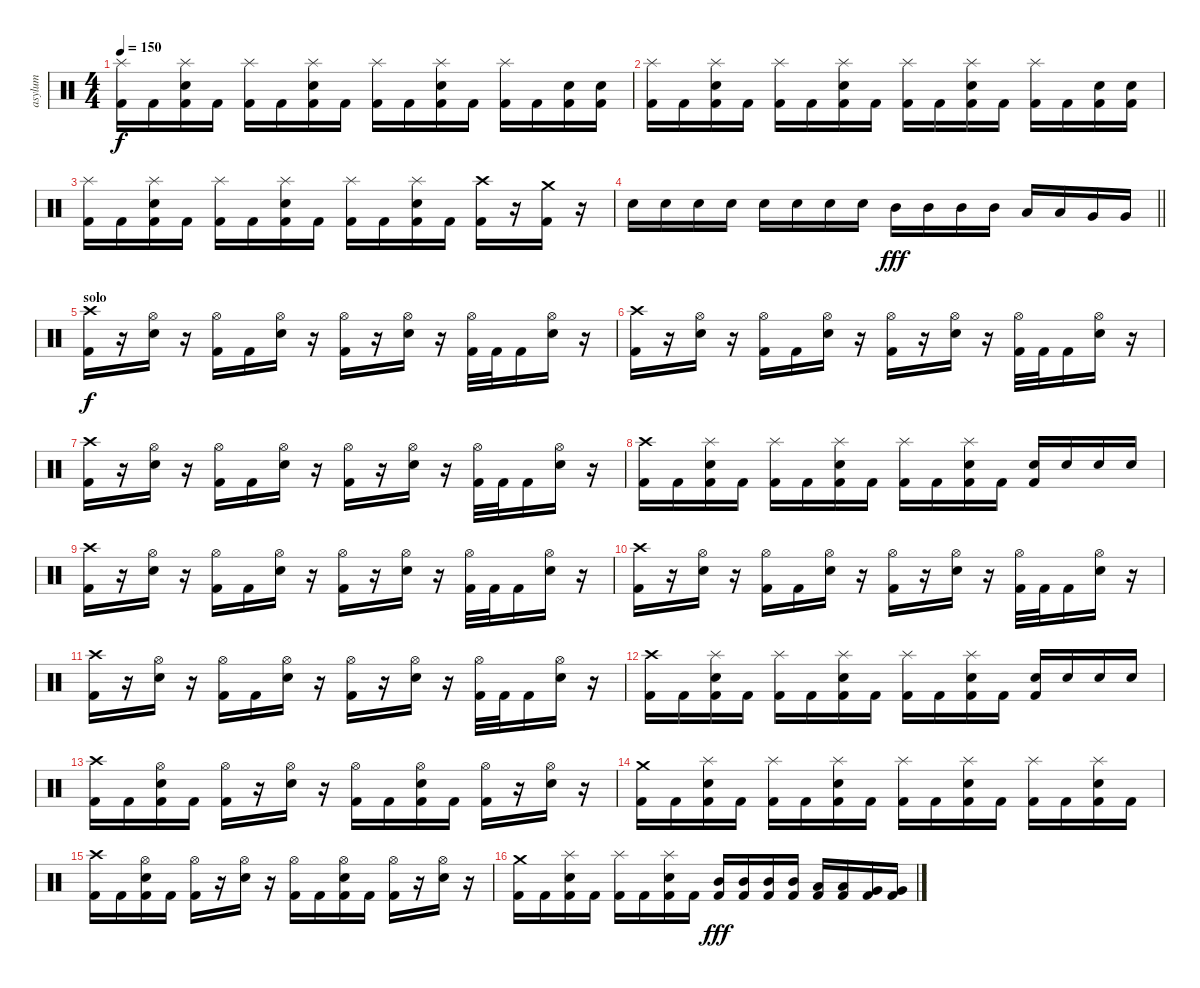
\track ("asylum" "asylum") {instrument percussion}
\staff {score}
\articulation defaults
\ts (4 4)
\tempo 150
\clef neutral
\ks c
("Splash (hit)" "Kick (hit) 2").16{dy f} "Kick (hit) 2".16 ("Splash (hit)" "Electric Snare (hit)" "Kick (hit) 2").16 "Kick (hit) 2".16 ("Splash (hit)" "Kick (hit) 2").16 "Kick (hit) 2".16 ("Splash (hit)" "Electric Snare (hit)" "Kick (hit) 2").16 "Kick (hit) 2".16 ("Splash (hit)" "Kick (hit) 2").16 "Kick (hit) 2".16 ("Splash (hit)" "Electric Snare (hit)" "Kick (hit) 2").16 "Kick (hit) 2".16 ("Splash (hit)" "Kick (hit) 2").16 "Kick (hit) 2".16 ("Electric Snare (hit)" "Kick (hit) 2").16 ("Electric Snare (hit)" "Kick (hit) 2").16 |
("Splash (hit)" "Kick (hit) 2").16 "Kick (hit) 2".16 ("Splash (hit)" "Electric Snare (hit)" "Kick (hit) 2").16 "Kick (hit) 2".16 ("Splash (hit)" "Kick (hit) 2").16 "Kick (hit) 2".16 ("Splash (hit)" "Electric Snare (hit)" "Kick (hit) 2").16 "Kick (hit) 2".16 ("Splash (hit)" "Kick (hit) 2").16 "Kick (hit) 2".16 ("Splash (hit)" "Electric Snare (hit)" "Kick (hit) 2").16 "Kick (hit) 2".16 ("Splash (hit)" "Kick (hit) 2").16 "Kick (hit) 2".16 ("Electric Snare (hit)" "Kick (hit) 2").16 ("Electric Snare (hit)" "Kick (hit) 2").16 |
("Splash (hit)" "Kick (hit) 2").16 "Kick (hit) 2".16 ("Splash (hit)" "Electric Snare (hit)" "Kick (hit) 2").16 "Kick (hit) 2".16 ("Splash (hit)" "Kick (hit) 2").16 "Kick (hit) 2".16 ("Splash (hit)" "Electric Snare (hit)" "Kick (hit) 2").16 "Kick (hit) 2".16 ("Splash (hit)" "Kick (hit) 2").16 "Kick (hit) 2".16 ("Splash (hit)" "Electric Snare (hit)" "Kick (hit) 2").16 "Kick (hit) 2".16 ("Crash high (hit)" "Kick (hit) 2").16 r.16 ("Crash medium (hit)" "Kick (hit) 2").16 r.16 |
\barLineRight lightlight "Electric Snare (hit)".16 "Electric Snare (hit)".16 "Electric Snare (hit)".16 "Electric Snare (hit)".16 "Electric Snare (hit)".16 "Electric Snare (hit)".16 "Electric Snare (hit)".16 "Electric Snare (hit)".16 "Mid Tom (hit)".16{dy fff} "Mid Tom (hit)".16 "Mid Tom (hit)".16 "Mid Tom (hit)".16 "Low Tom (hit)".16 "Low Tom (hit)".16 "Very Low Tom (hit)".16 "Very Low Tom (hit)".16
|
\section ("" "solo")
("Crash high (hit)" "Kick (hit) 2").16{dy f} r.16 ("Hi-Hat (open)" "Electric Snare (hit)").16 r.16 ("Hi-Hat (open)" "Kick (hit) 2").16 "Kick (hit) 2".16 ("Hi-Hat (open)" "Electric Snare (hit)").16 r.16 ("Hi-Hat (open)" "Kick (hit) 2").16 r.16 ("Hi-Hat (open)" "Electric Snare (hit)").16 r.16 ("Hi-Hat (open)" "Kick (hit) 2").32 "Kick (hit) 2".32 "Kick (hit) 2".16 ("Hi-Hat (open)" "Electric Snare (hit)").16 r.16 |
("Crash high (hit)" "Kick (hit) 2").16 r.16 ("Hi-Hat (open)" "Electric Snare (hit)").16 r.16 ("Hi-Hat (open)" "Kick (hit) 2").16 "Kick (hit) 2".16 ("Hi-Hat (open)" "Electric Snare (hit)").16 r.16 ("Hi-Hat (open)" "Kick (hit) 2").16 r.16 ("Hi-Hat (open)" "Electric Snare (hit)").16 r.16 ("Hi-Hat (open)" "Kick (hit) 2").32 "Kick (hit) 2".32 "Kick (hit) 2".16 ("Hi-Hat (open)" "Electric Snare (hit)").16 r.16 |
("Crash high (hit)" "Kick (hit) 2").16 r.16 ("Hi-Hat (open)" "Electric Snare (hit)").16 r.16 ("Hi-Hat (open)" "Kick (hit) 2").16 "Kick (hit) 2".16 ("Hi-Hat (open)" "Electric Snare (hit)").16 r.16 ("Hi-Hat (open)" "Kick (hit) 2").16 r.16 ("Hi-Hat (open)" "Electric Snare (hit)").16 r.16 ("Hi-Hat (open)" "Kick (hit) 2").32 "Kick (hit) 2".32 "Kick (hit) 2".16 ("Hi-Hat (open)" "Electric Snare (hit)").16 r.16 |
("Crash high (hit)" "Kick (hit) 2").16 "Kick (hit) 2".16 ("Splash (hit)" "Electric Snare (hit)" "Kick (hit) 2").16 "Kick (hit) 2".16 ("Splash (hit)" "Kick (hit) 2").16 "Kick (hit) 2".16 ("Splash (hit)" "Electric Snare (hit)" "Kick (hit) 2").16 "Kick (hit) 2".16 ("Splash (hit)" "Kick (hit) 2").16 "Kick (hit) 2".16 ("Splash (hit)" "Electric Snare (hit)" "Kick (hit) 2").16 "Kick (hit) 2".16 ("Electric Snare (hit)" "Kick (hit) 2").16 "Electric Snare (hit)".16 "Electric Snare (hit)".16 "Electric Snare (hit)".16 |
("Crash high (hit)" "Kick (hit) 2").16 r.16 ("Hi-Hat (open)" "Electric Snare (hit)").16 r.16 ("Hi-Hat (open)" "Kick (hit) 2").16 "Kick (hit) 2".16 ("Hi-Hat (open)" "Electric Snare (hit)").16 r.16 ("Hi-Hat (open)" "Kick (hit) 2").16 r.16 ("Hi-Hat (open)" "Electric Snare (hit)").16 r.16 ("Hi-Hat (open)" "Kick (hit) 2").32 "Kick (hit) 2".32 "Kick (hit) 2".16 ("Hi-Hat (open)" "Electric Snare (hit)").16 r.16 |
("Crash high (hit)" "Kick (hit) 2").16 r.16 ("Hi-Hat (open)" "Electric Snare (hit)").16 r.16 ("Hi-Hat (open)" "Kick (hit) 2").16 "Kick (hit) 2".16 ("Hi-Hat (open)" "Electric Snare (hit)").16 r.16 ("Hi-Hat (open)" "Kick (hit) 2").16 r.16 ("Hi-Hat (open)" "Electric Snare (hit)").16 r.16 ("Hi-Hat (open)" "Kick (hit) 2").32 "Kick (hit) 2".32 "Kick (hit) 2".16 ("Hi-Hat (open)" "Electric Snare (hit)").16 r.16 |
("Crash high (hit)" "Kick (hit) 2").16 r.16 ("Hi-Hat (open)" "Electric Snare (hit)").16 r.16 ("Hi-Hat (open)" "Kick (hit) 2").16 "Kick (hit) 2".16 ("Hi-Hat (open)" "Electric Snare (hit)").16 r.16 ("Hi-Hat (open)" "Kick (hit) 2").16 r.16 ("Hi-Hat (open)" "Electric Snare (hit)").16 r.16 ("Hi-Hat (open)" "Kick (hit) 2").32 "Kick (hit) 2".32 "Kick (hit) 2".16 ("Hi-Hat (open)" "Electric Snare (hit)").16 r.16 |
("Crash high (hit)" "Kick (hit) 2").16 "Kick (hit) 2".16 ("Splash (hit)" "Electric Snare (hit)" "Kick (hit) 2").16 "Kick (hit) 2".16 ("Splash (hit)" "Kick (hit) 2").16 "Kick (hit) 2".16 ("Splash (hit)" "Electric Snare (hit)" "Kick (hit) 2").16 "Kick (hit) 2".16 ("Splash (hit)" "Kick (hit) 2").16 "Kick (hit) 2".16 ("Splash (hit)" "Electric Snare (hit)" "Kick (hit) 2").16 "Kick (hit) 2".16 ("Electric Snare (hit)" "Kick (hit) 2").16 "Electric Snare (hit)".16 "Electric Snare (hit)".16 "Electric Snare (hit)".16 |
("Crash high (hit)" "Kick (hit) 2").16 "Kick (hit) 2".16 ("Hi-Hat (open)" "Electric Snare (hit)" "Kick (hit) 2").16 "Kick (hit) 2".16 ("Hi-Hat (open)" "Kick (hit) 2").16 r.16 ("Hi-Hat (open)" "Electric Snare (hit)").16 r.16 ("Hi-Hat (open)" "Kick (hit) 2").16 "Kick (hit) 2".16 ("Hi-Hat (open)" "Electric Snare (hit)" "Kick (hit) 2").16 "Kick (hit) 2".16 ("Hi-Hat (open)" "Kick (hit) 2").16 r.16 ("Hi-Hat (open)" "Electric Snare (hit)").16 r.16 |
("Crash medium (hit)" "Kick (hit) 2").16 "Kick (hit) 2".16 ("Splash (hit)" "Electric Snare (hit)" "Kick (hit) 2").16 "Kick (hit) 2".16 ("Splash (hit)" "Kick (hit) 2").16 "Kick (hit) 2".16 ("Splash (hit)" "Electric Snare (hit)" "Kick (hit) 2").16 "Kick (hit) 2".16 ("Splash (hit)" "Kick (hit) 2").16 "Kick (hit) 2".16 ("Splash (hit)" "Electric Snare (hit)" "Kick (hit) 2").16 "Kick (hit) 2".16 ("Splash (hit)" "Kick (hit) 2").16 "Kick (hit) 2".16 ("Splash (hit)" "Electric Snare (hit)" "Kick (hit) 2").16 "Kick (hit) 2".16 |
("Crash high (hit)" "Kick (hit) 2").16 "Kick (hit) 2".16 ("Hi-Hat (open)" "Electric Snare (hit)" "Kick (hit) 2").16 "Kick (hit) 2".16 ("Hi-Hat (open)" "Kick (hit) 2").16 r.16 ("Hi-Hat (open)" "Electric Snare (hit)").16 r.16 ("Hi-Hat (open)" "Kick (hit) 2").16 "Kick (hit) 2".16 ("Hi-Hat (open)" "Electric Snare (hit)" "Kick (hit) 2").16 "Kick (hit) 2".16 ("Hi-Hat (open)" "Kick (hit) 2").16 r.16 ("Hi-Hat (open)" "Electric Snare (hit)").16 r.16 |
("Crash medium (hit)" "Kick (hit) 2").16 "Kick (hit) 2".16 ("Splash (hit)" "Electric Snare (hit)" "Kick (hit) 2").16 "Kick (hit) 2".16 ("Splash (hit)" "Kick (hit) 2").16 "Kick (hit) 2".16 ("Splash (hit)" "Electric Snare (hit)" "Kick (hit) 2").16 "Kick (hit) 2".16 ("Mid Tom (hit)" "Kick (hit) 2").16{dy fff} ("Mid Tom (hit)" "Kick (hit) 2").16 ("Mid Tom (hit)" "Kick (hit) 2").16 ("Mid Tom (hit)" "Kick (hit) 2").16 ("Low Tom (hit)" "Kick (hit) 2").16 ("Low Tom (hit)" "Kick (hit) 2").16 ("Very Low Tom (hit)" "Kick (hit) 2").16 ("Very Low Tom (hit)" "Kick (hit) 2").16
